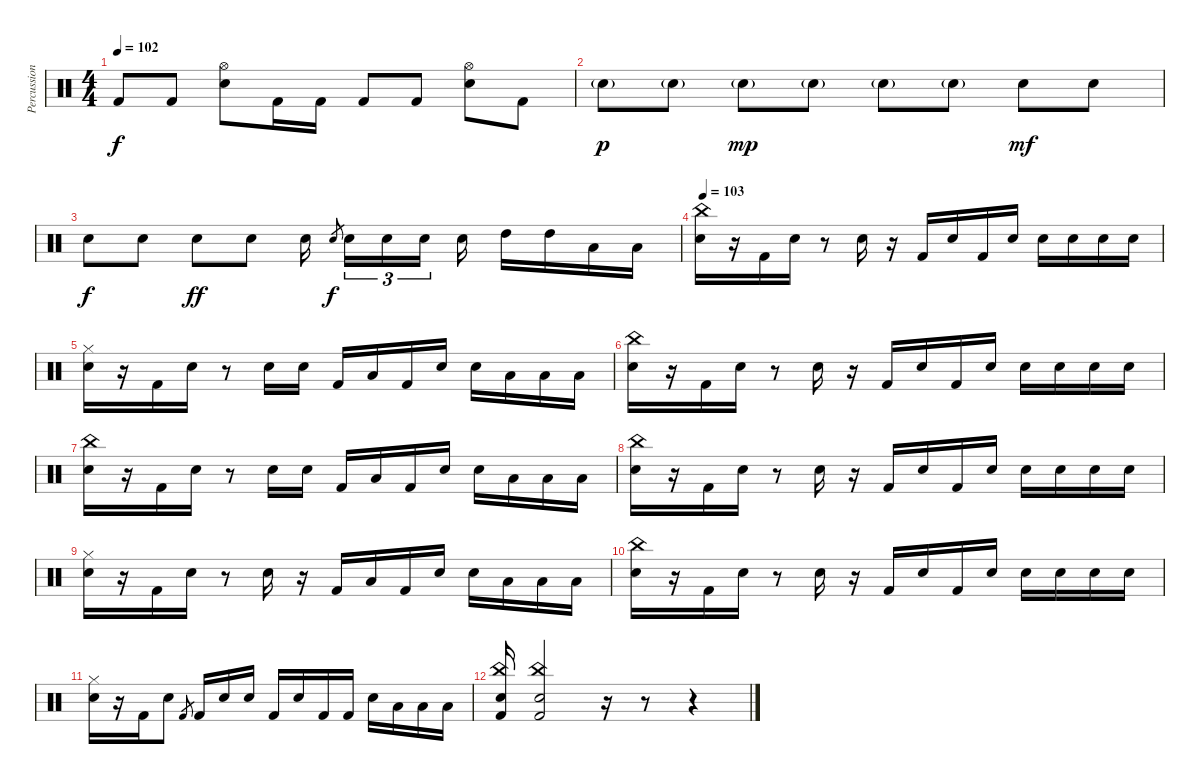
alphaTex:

\track ("Percussion" "Percussion") {instrument percussion}
\staff {score}
\articulation defaults
\ts (4 4)
\tempo 102
\clef neutral
\ks c "Kick (hit) 2".8{dy f} "Kick (hit) 2".8
("Hi-Hat (open)" "Electric Snare (hit)").8 "Kick (hit) 2".16 "Kick (hit) 2".16 "Kick (hit) 2".8 "Kick (hit) 2".8 ("Hi-Hat (open)" "Electric Snare (hit)").8 "Kick (hit) 2".8 |
"Electric Snare (hit)"{g}.8{dy p} "Electric Snare (hit)"{g}.8 "Electric Snare (hit)"{g}.8{dy mp} "Electric Snare (hit)"{g}.8 "Electric Snare (hit)"{g}.8 "Electric Snare (hit)"{g}.8 "Electric Snare (hit)".8{dy mf} "Electric Snare (hit)".8 |
"Electric Snare (hit)".8{dy f} "Electric Snare (hit)".8 "Electric Snare (hit)".8{dy ff} "Electric Snare (hit)".8 "Electric Snare (hit)".16 "Electric Snare (hit)".8{gr dy f} "Electric Snare (hit)".16{tu (3 2)} "Electric Snare (hit)".16{tu (3 2)} "Electric Snare (hit)".16{tu (3 2)} "Electric Snare (hit)".16 "High Tom (hit)".16 "High Tom (hit)".16 "Low Tom (hit)".16 "Low Tom (hit)".16 |
\tempo 103
("China (hit)" "Snare (hit) 2").16 r.16 "Kick (hit) 2".16 "Snare (hit) 2".16 r.8 "Snare (hit) 2".16 r.16 "Kick (hit) 2".16 "Electric Snare (hit)".16 "Kick (hit) 2".16 "Snare (hit) 2".16 "Snare (hit) 2".16 "Electric Snare (hit)".16 "Electric Snare (hit)".16 "Electric Snare (hit)".16 |
("Hi-Hat (closed)" "Snare (hit) 2").16 r.16 "Kick (hit) 2".16 "Electric Snare (hit)".16 r.8 "Snare (hit) 2".16 "Snare (hit) 2".16 "Kick (hit) 2".16 "Low Tom (hit)".16 "Kick (hit) 2".16 "Snare (hit) 2".16 "Snare (hit) 2".16 "Low Tom (hit)".16 "Low Tom (hit)".16 "Low Tom (hit)".16 |
("China (hit)" "Snare (hit) 2").16 r.16 "Kick (hit) 2".16 "Snare (hit) 2".16 r.8 "Snare (hit) 2".16 r.16 "Kick (hit) 2".16 "Electric Snare (hit)".16 "Kick (hit) 2".16 "Snare (hit) 2".16 "Snare (hit) 2".16 "Electric Snare (hit)".16 "Electric Snare (hit)".16 "Electric Snare (hit)".16 |
("China (hit)" "Snare (hit) 2").16 r.16 "Kick (hit) 2".16 "Electric Snare (hit)".16 r.8 "Snare (hit) 2".16 "Snare (hit) 2".16 "Kick (hit) 2".16 "Low Tom (hit)".16 "Kick (hit) 2".16 "Snare (hit) 2".16 "Snare (hit) 2".16 "Low Tom (hit)".16 "Low Tom (hit)".16 "Low Tom (hit)".16 |
("China (hit)" "Snare (hit) 2").16 r.16 "Kick (hit) 2".16 "Snare (hit) 2".16 r.8 "Snare (hit) 2".16 r.16 "Kick (hit) 2".16 "Electric Snare (hit)".16 "Kick (hit) 2".16 "Snare (hit) 2".16 "Snare (hit) 2".16 "Electric Snare (hit)".16 "Electric Snare (hit)".16 "Electric Snare (hit)".16 |
("Hi-Hat (closed)" "Snare (hit) 2").16 r.16 "Kick (hit) 2".16 "Electric Snare (hit)".16 r.8 "Snare (hit) 2".16 r.16 "Kick (hit) 2".16 "Low Tom (hit)".16 "Kick (hit) 2".16 "Snare (hit) 2".16 "Snare (hit) 2".16 "Low Tom (hit)".16 "Low Tom (hit)".16 "Low Tom (hit)".16 |
("China (hit)" "Snare (hit) 2").16 r.16 "Kick (hit) 2".16 "Snare (hit) 2".16 r.8 "Snare (hit) 2".16 r.16 "Kick (hit) 2".16 "Electric Snare (hit)".16 "Kick (hit) 2".16 "Snare (hit) 2".16 "Snare (hit) 2".16 "Electric Snare (hit)".16 "Electric Snare (hit)".16 "Electric Snare (hit)".16 |
("Hi-Hat (closed)" "Snare (hit) 2").16 r.16 "Kick (hit) 2".16 "Electric Snare (hit)".8 "Kick (hit) 2".8{gr} "Kick (hit) 2".16 "Electric Snare (hit)".16 "Electric Snare (hit)".16 "Kick (hit) 2".16 "Snare (hit) 2".16 "Kick (hit) 2".16 "Kick (hit) 2".16 "Snare (hit) 2".16 "Low Tom (hit)".16 "Low Tom (hit)".16 "Low Tom (hit)".16 |
("China (hit)" "Snare (hit) 2" "Kick (hit) 2").16 ("China (hit)" "Snare (hit) 2" "Kick (hit) 2").2 r.16 r.8 r.4
